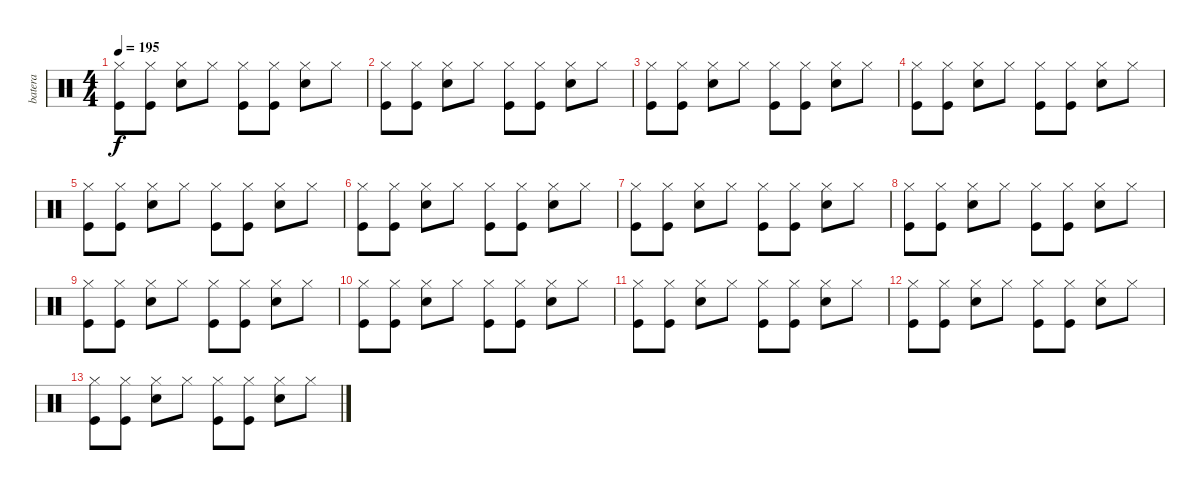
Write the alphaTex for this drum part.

\track ("batera" "batera") {instrument percussion}
\staff {score}
\articulation defaults
\ts (4 4)
\tempo 195
\clef neutral
\ks c
("Hi-Hat (closed)" "Kick (hit)").8{dy f} ("Hi-Hat (closed)" "Kick (hit)").8 ("Hi-Hat (closed)" "Snare (hit) 2").8 "Hi-Hat (closed)".8 ("Hi-Hat (closed)" "Kick (hit)").8 ("Hi-Hat (closed)" "Kick (hit)").8 ("Hi-Hat (closed)" "Snare (hit) 2").8 "Hi-Hat (closed)".8 |
("Hi-Hat (closed)" "Kick (hit)").8 ("Hi-Hat (closed)" "Kick (hit)").8 ("Hi-Hat (closed)" "Snare (hit) 2").8 "Hi-Hat (closed)".8 ("Hi-Hat (closed)" "Kick (hit)").8 ("Hi-Hat (closed)" "Kick (hit)").8 ("Hi-Hat (closed)" "Snare (hit) 2").8 "Hi-Hat (closed)".8 |
("Hi-Hat (closed)" "Kick (hit)").8 ("Hi-Hat (closed)" "Kick (hit)").8 ("Hi-Hat (closed)" "Snare (hit) 2").8 "Hi-Hat (closed)".8 ("Hi-Hat (closed)" "Kick (hit)").8 ("Hi-Hat (closed)" "Kick (hit)").8 ("Hi-Hat (closed)" "Snare (hit) 2").8 "Hi-Hat (closed)".8 |
("Hi-Hat (closed)" "Kick (hit)").8 ("Hi-Hat (closed)" "Kick (hit)").8 ("Hi-Hat (closed)" "Snare (hit) 2").8 "Hi-Hat (closed)".8 ("Hi-Hat (closed)" "Kick (hit)").8 ("Hi-Hat (closed)" "Kick (hit)").8 ("Hi-Hat (closed)" "Snare (hit) 2").8 "Hi-Hat (closed)".8 |
("Hi-Hat (closed)" "Kick (hit)").8 ("Hi-Hat (closed)" "Kick (hit)").8 ("Hi-Hat (closed)" "Snare (hit) 2").8 "Hi-Hat (closed)".8 ("Hi-Hat (closed)" "Kick (hit)").8 ("Hi-Hat (closed)" "Kick (hit)").8 ("Hi-Hat (closed)" "Snare (hit) 2").8 "Hi-Hat (closed)".8 |
("Hi-Hat (closed)" "Kick (hit)").8 ("Hi-Hat (closed)" "Kick (hit)").8 ("Hi-Hat (closed)" "Snare (hit) 2").8 "Hi-Hat (closed)".8 ("Hi-Hat (closed)" "Kick (hit)").8 ("Hi-Hat (closed)" "Kick (hit)").8 ("Hi-Hat (closed)" "Snare (hit) 2").8 "Hi-Hat (closed)".8 |
("Hi-Hat (closed)" "Kick (hit)").8 ("Hi-Hat (closed)" "Kick (hit)").8 ("Hi-Hat (closed)" "Snare (hit) 2").8 "Hi-Hat (closed)".8 ("Hi-Hat (closed)" "Kick (hit)").8 ("Hi-Hat (closed)" "Kick (hit)").8 ("Hi-Hat (closed)" "Snare (hit) 2").8 "Hi-Hat (closed)".8 |
("Hi-Hat (closed)" "Kick (hit)").8 ("Hi-Hat (closed)" "Kick (hit)").8 ("Hi-Hat (closed)" "Snare (hit) 2").8 "Hi-Hat (closed)".8 ("Hi-Hat (closed)" "Kick (hit)").8 ("Hi-Hat (closed)" "Kick (hit)").8 ("Hi-Hat (closed)" "Snare (hit) 2").8 "Hi-Hat (closed)".8 |
("Hi-Hat (closed)" "Kick (hit)").8 ("Hi-Hat (closed)" "Kick (hit)").8 ("Hi-Hat (closed)" "Snare (hit) 2").8 "Hi-Hat (closed)".8 ("Hi-Hat (closed)" "Kick (hit)").8 ("Hi-Hat (closed)" "Kick (hit)").8 ("Hi-Hat (closed)" "Snare (hit) 2").8 "Hi-Hat (closed)".8 |
("Hi-Hat (closed)" "Kick (hit)").8 ("Hi-Hat (closed)" "Kick (hit)").8 ("Hi-Hat (closed)" "Snare (hit) 2").8 "Hi-Hat (closed)".8 ("Hi-Hat (closed)" "Kick (hit)").8 ("Hi-Hat (closed)" "Kick (hit)").8 ("Hi-Hat (closed)" "Snare (hit) 2").8 "Hi-Hat (closed)".8 |
("Hi-Hat (closed)" "Kick (hit)").8 ("Hi-Hat (closed)" "Kick (hit)").8 ("Hi-Hat (closed)" "Snare (hit) 2").8 "Hi-Hat (closed)".8 ("Hi-Hat (closed)" "Kick (hit)").8 ("Hi-Hat (closed)" "Kick (hit)").8 ("Hi-Hat (closed)" "Snare (hit) 2").8 "Hi-Hat (closed)".8 |
("Hi-Hat (closed)" "Kick (hit)").8 ("Hi-Hat (closed)" "Kick (hit)").8 ("Hi-Hat (closed)" "Snare (hit) 2").8 "Hi-Hat (closed)".8 ("Hi-Hat (closed)" "Kick (hit)").8 ("Hi-Hat (closed)" "Kick (hit)").8 ("Hi-Hat (closed)" "Snare (hit) 2").8 "Hi-Hat (closed)".8 |
("Hi-Hat (closed)" "Kick (hit)").8 ("Hi-Hat (closed)" "Kick (hit)").8 ("Hi-Hat (closed)" "Snare (hit) 2").8 "Hi-Hat (closed)".8 ("Hi-Hat (closed)" "Kick (hit)").8 ("Hi-Hat (closed)" "Kick (hit)").8 ("Hi-Hat (closed)" "Snare (hit) 2").8 "Hi-Hat (closed)".8
